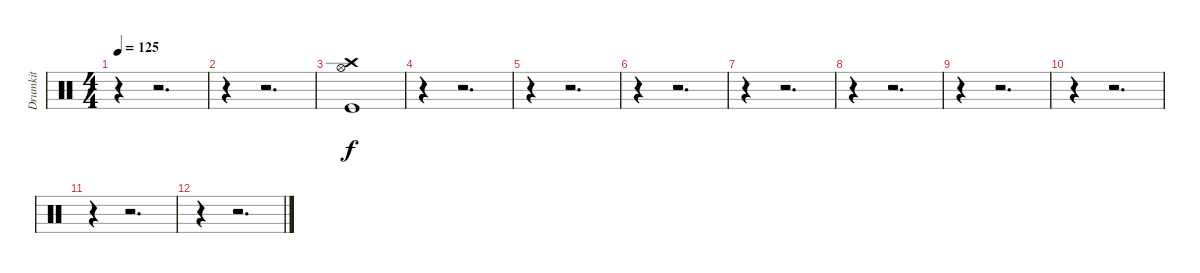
\track ("Drumkit" "Drumkit") {instrument percussion}
\staff {score}
\articulation defaults
\ts (4 4)
\tempo 125
\clef neutral
\ks c
r.4{dy f} r.2{d} |
r.4 r.2{d} |
("Hi-Hat (open)" "Crash high (hit)" "Kick (hit)").1 |
r.4 r.2{d} |
r.4 r.2{d} |
r.4 r.2{d} |
r.4 r.2{d} |
r.4 r.2{d} |
r.4 r.2{d} |
r.4 r.2{d} |
r.4 r.2{d} |
r.4 r.2{d}
